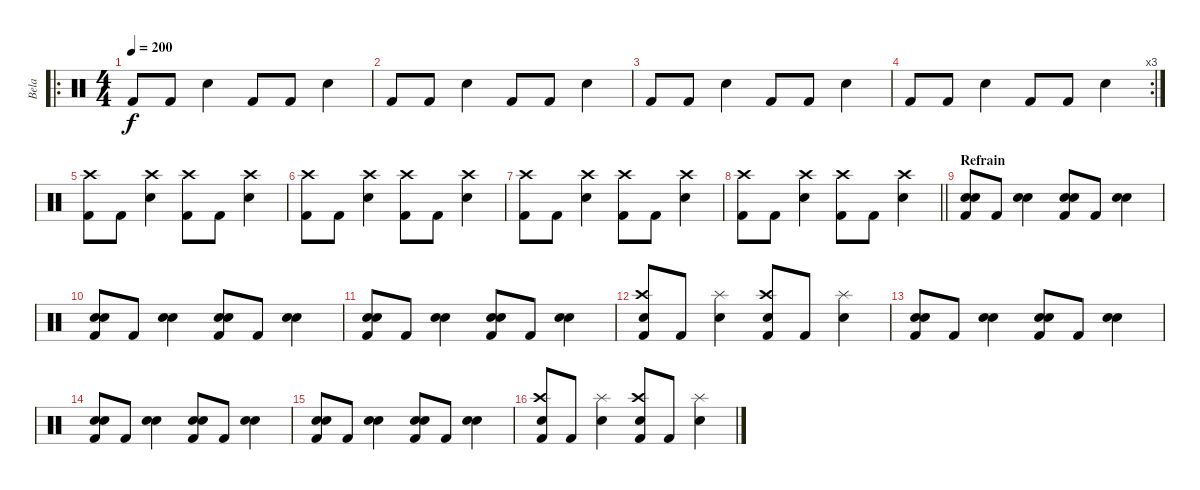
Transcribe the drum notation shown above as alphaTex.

\track ("Bela" "Bela") {instrument percussion}
\staff {score}
\articulation defaults
\ro
\ts (4 4)
\tempo 200
\clef neutral
\ks c "Kick (hit) 2".8{dy f} "Kick (hit) 2".8 "Snare (hit) 2".4 "Kick (hit) 2".8 "Kick (hit) 2".8 "Snare (hit) 2".4
|
"Kick (hit) 2".8 "Kick (hit) 2".8 "Snare (hit) 2".4 "Kick (hit) 2".8 "Kick (hit) 2".8 "Snare (hit) 2".4 |
"Kick (hit) 2".8 "Kick (hit) 2".8 "Snare (hit) 2".4 "Kick (hit) 2".8 "Kick (hit) 2".8 "Snare (hit) 2".4 |
\rc 3 "Kick (hit) 2".8 "Kick (hit) 2".8 "Snare (hit) 2".4 "Kick (hit) 2".8 "Kick (hit) 2".8 "Snare (hit) 2".4
|
("Crash high (hit)" "Kick (hit) 2").8 "Kick (hit) 2".8 ("Crash high (hit)" "Snare (hit) 2").4 ("Crash high (hit)" "Kick (hit) 2").8 "Kick (hit) 2".8 ("Crash high (hit)" "Snare (hit) 2").4 |
("Crash high (hit)" "Kick (hit) 2").8 "Kick (hit) 2".8 ("Crash high (hit)" "Snare (hit) 2").4 ("Crash high (hit)" "Kick (hit) 2").8 "Kick (hit) 2".8 ("Crash high (hit)" "Snare (hit) 2").4 |
("Crash high (hit)" "Kick (hit) 2").8 "Kick (hit) 2".8 ("Crash high (hit)" "Snare (hit) 2").4 ("Crash high (hit)" "Kick (hit) 2").8 "Kick (hit) 2".8 ("Crash high (hit)" "Snare (hit) 2").4 |
\barLineRight lightlight
("Crash high (hit)" "Kick (hit) 2").8 "Kick (hit) 2".8 ("Crash high (hit)" "Snare (hit) 2").4 ("Crash high (hit)" "Kick (hit) 2").8 "Kick (hit) 2".8 ("Crash high (hit)" "Snare (hit) 2").4 |
\section ("" "Refrain")
("Electric Snare (hit)" "Snare (hit) 2" "Kick (hit) 2").8 "Kick (hit) 2".8 ("Electric Snare (hit)" "Snare (hit) 2").4 ("Electric Snare (hit)" "Snare (hit) 2" "Kick (hit) 2").8 "Kick (hit) 2".8 ("Electric Snare (hit)" "Snare (hit) 2").4 |
("Electric Snare (hit)" "Snare (hit) 2" "Kick (hit) 2").8 "Kick (hit) 2".8 ("Electric Snare (hit)" "Snare (hit) 2").4 ("Electric Snare (hit)" "Snare (hit) 2" "Kick (hit) 2").8 "Kick (hit) 2".8 ("Electric Snare (hit)" "Snare (hit) 2").4 |
("Electric Snare (hit)" "Snare (hit) 2" "Kick (hit) 2").8 "Kick (hit) 2".8 ("Electric Snare (hit)" "Snare (hit) 2").4 ("Electric Snare (hit)" "Snare (hit) 2" "Kick (hit) 2").8 "Kick (hit) 2".8 ("Electric Snare (hit)" "Snare (hit) 2").4 |
("Crash high (hit)" "Electric Snare (hit)" "Kick (hit) 2").8 "Kick (hit) 2".8 ("Splash (hit)" "Electric Snare (hit)").4 ("Crash high (hit)" "Electric Snare (hit)" "Kick (hit) 2").8 "Kick (hit) 2".8 ("Splash (hit)" "Electric Snare (hit)").4 |
("Electric Snare (hit)" "Snare (hit) 2" "Kick (hit) 2").8 "Kick (hit) 2".8 ("Electric Snare (hit)" "Snare (hit) 2").4 ("Electric Snare (hit)" "Snare (hit) 2" "Kick (hit) 2").8 "Kick (hit) 2".8 ("Electric Snare (hit)" "Snare (hit) 2").4 |
("Electric Snare (hit)" "Snare (hit) 2" "Kick (hit) 2").8 "Kick (hit) 2".8 ("Electric Snare (hit)" "Snare (hit) 2").4 ("Electric Snare (hit)" "Snare (hit) 2" "Kick (hit) 2").8 "Kick (hit) 2".8 ("Electric Snare (hit)" "Snare (hit) 2").4 |
("Electric Snare (hit)" "Snare (hit) 2" "Kick (hit) 2").8 "Kick (hit) 2".8 ("Electric Snare (hit)" "Snare (hit) 2").4 ("Electric Snare (hit)" "Snare (hit) 2" "Kick (hit) 2").8 "Kick (hit) 2".8 ("Electric Snare (hit)" "Snare (hit) 2").4 |
("Crash high (hit)" "Electric Snare (hit)" "Kick (hit) 2").8 "Kick (hit) 2".8 ("Splash (hit)" "Electric Snare (hit)").4 ("Crash high (hit)" "Electric Snare (hit)" "Kick (hit) 2").8 "Kick (hit) 2".8 ("Splash (hit)" "Electric Snare (hit)").4
